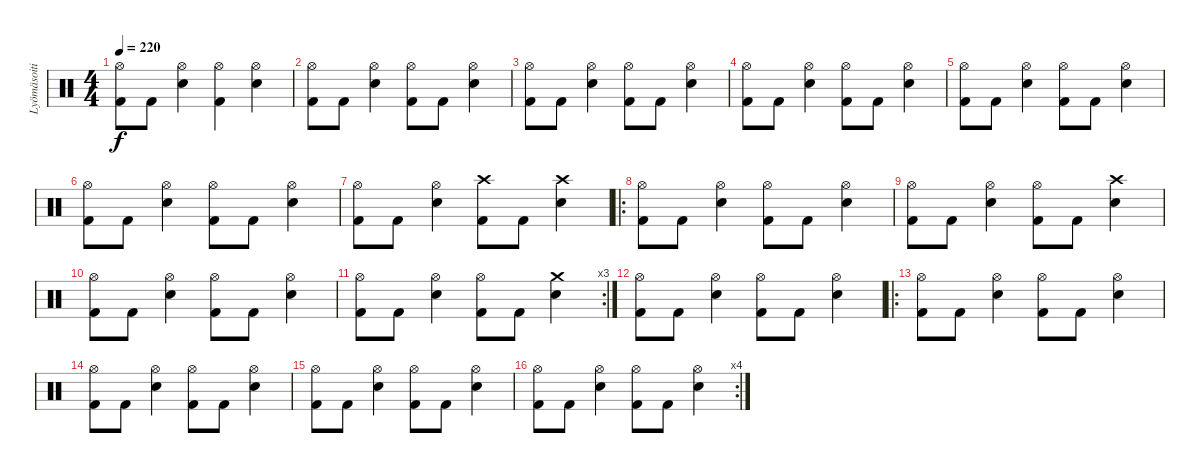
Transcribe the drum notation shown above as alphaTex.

\track ("Lyömäsoitin" "Lyömäsoiti") {instrument percussion}
\staff {score}
\articulation defaults
\ts (4 4)
\tempo 220
\clef neutral
\ks c
("Hi-Hat (open)" "Kick (hit) 2").8{dy f} "Kick (hit) 2".8 ("Hi-Hat (open)" "Snare (hit) 2").4 ("Hi-Hat (open)" "Kick (hit) 2").4 ("Hi-Hat (open)" "Snare (hit) 2").4 |
("Hi-Hat (open)" "Kick (hit) 2").8 "Kick (hit) 2".8 ("Hi-Hat (open)" "Snare (hit) 2").4 ("Hi-Hat (open)" "Kick (hit) 2").8 "Kick (hit) 2".8 ("Hi-Hat (open)" "Snare (hit) 2").4 |
("Hi-Hat (open)" "Kick (hit) 2").8 "Kick (hit) 2".8 ("Hi-Hat (open)" "Snare (hit) 2").4 ("Hi-Hat (open)" "Kick (hit) 2").8 "Kick (hit) 2".8 ("Hi-Hat (open)" "Snare (hit) 2").4 |
("Hi-Hat (open)" "Kick (hit) 2").8 "Kick (hit) 2".8 ("Hi-Hat (open)" "Snare (hit) 2").4 ("Hi-Hat (open)" "Kick (hit) 2").8 "Kick (hit) 2".8 ("Hi-Hat (open)" "Snare (hit) 2").4 |
("Hi-Hat (open)" "Kick (hit) 2").8 "Kick (hit) 2".8 ("Hi-Hat (open)" "Snare (hit) 2").4 ("Hi-Hat (open)" "Kick (hit) 2").8 "Kick (hit) 2".8 ("Hi-Hat (open)" "Snare (hit) 2").4 |
("Hi-Hat (open)" "Kick (hit) 2").8 "Kick (hit) 2".8 ("Hi-Hat (open)" "Snare (hit) 2").4 ("Hi-Hat (open)" "Kick (hit) 2").8 "Kick (hit) 2".8 ("Hi-Hat (open)" "Snare (hit) 2").4 |
("Hi-Hat (open)" "Kick (hit) 2").8 "Kick (hit) 2".8 ("Hi-Hat (open)" "Snare (hit) 2").4 ("Crash high (hit)" "Kick (hit) 2").8 "Kick (hit) 2".8 ("Crash high (hit)" "Snare (hit) 2").4 |
\ro
("Hi-Hat (open)" "Kick (hit) 2").8 "Kick (hit) 2".8 ("Hi-Hat (open)" "Snare (hit) 2").4 ("Hi-Hat (open)" "Kick (hit) 2").8 "Kick (hit) 2".8 ("Hi-Hat (open)" "Snare (hit) 2").4 |
("Hi-Hat (open)" "Kick (hit) 2").8 "Kick (hit) 2".8 ("Hi-Hat (open)" "Snare (hit) 2").4 ("Hi-Hat (open)" "Kick (hit) 2").8 "Kick (hit) 2".8 ("Crash high (hit)" "Snare (hit) 2").4 |
("Hi-Hat (open)" "Kick (hit) 2").8 "Kick (hit) 2".8 ("Hi-Hat (open)" "Snare (hit) 2").4 ("Hi-Hat (open)" "Kick (hit) 2").8 "Kick (hit) 2".8 ("Hi-Hat (open)" "Snare (hit) 2").4 |
\rc 3
("Hi-Hat (open)" "Kick (hit) 2").8 "Kick (hit) 2".8 ("Hi-Hat (open)" "Snare (hit) 2").4 ("Hi-Hat (open)" "Kick (hit) 2").8 "Kick (hit) 2".8 ("Crash medium (hit)" "Snare (hit) 2").4 |
("Hi-Hat (open)" "Kick (hit) 2").8 "Kick (hit) 2".8 ("Hi-Hat (open)" "Snare (hit) 2").4 ("Hi-Hat (open)" "Kick (hit) 2").8 "Kick (hit) 2".8 ("Hi-Hat (open)" "Snare (hit) 2").4 |
\ro
("Hi-Hat (open)" "Kick (hit) 2").8 "Kick (hit) 2".8 ("Hi-Hat (open)" "Snare (hit) 2").4 ("Hi-Hat (open)" "Kick (hit) 2").8 "Kick (hit) 2".8 ("Hi-Hat (open)" "Snare (hit) 2").4 |
("Hi-Hat (open)" "Kick (hit) 2").8 "Kick (hit) 2".8 ("Hi-Hat (open)" "Snare (hit) 2").4 ("Hi-Hat (open)" "Kick (hit) 2").8 "Kick (hit) 2".8 ("Hi-Hat (open)" "Snare (hit) 2").4 |
("Hi-Hat (open)" "Kick (hit) 2").8 "Kick (hit) 2".8 ("Hi-Hat (open)" "Snare (hit) 2").4 ("Hi-Hat (open)" "Kick (hit) 2").8 "Kick (hit) 2".8 ("Hi-Hat (open)" "Snare (hit) 2").4 |
\rc 4
("Hi-Hat (open)" "Kick (hit) 2").8 "Kick (hit) 2".8 ("Hi-Hat (open)" "Snare (hit) 2").4 ("Hi-Hat (open)" "Kick (hit) 2").8 "Kick (hit) 2".8 ("Hi-Hat (open)" "Snare (hit) 2").4
